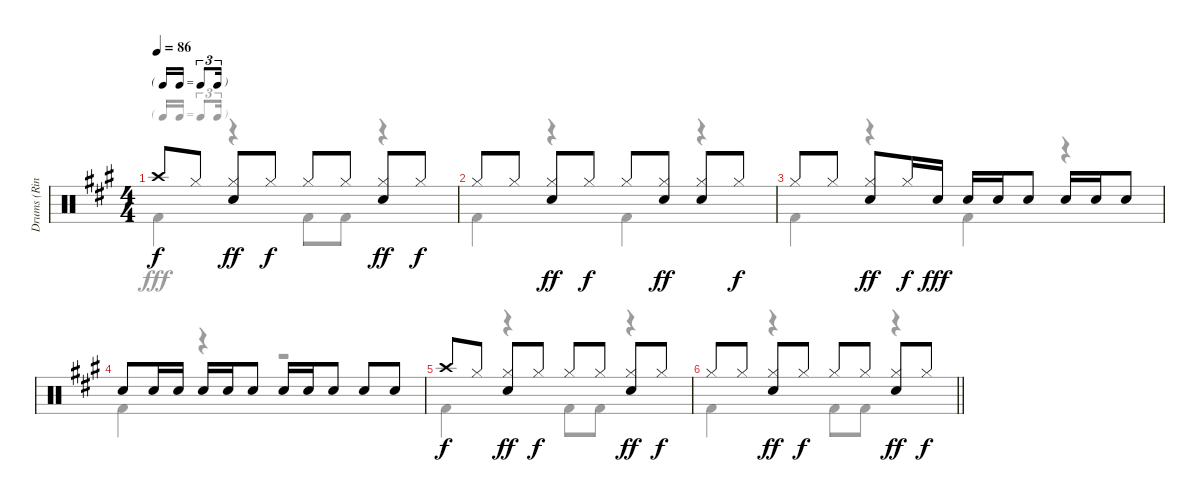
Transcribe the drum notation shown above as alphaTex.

\track ("Drums (Ringo Starr)" "Drums (Rin") {instrument percussion}
\staff {score}
\articulation defaults
\voice
\ts (4 4)
\tf triplet16th
\tempo 86
\clef neutral
\ks a "Crash high (hit)".8{dy f} "Hi-Hat (closed)".8
("Hi-Hat (closed)" "Snare (hit) 2").8{dy ff} "Hi-Hat (closed)".8{dy f} "Hi-Hat (closed)".8 "Hi-Hat (closed)".8 ("Hi-Hat (closed)" "Snare (hit) 2").8{dy ff} "Hi-Hat (closed)".8{dy f} |
"Hi-Hat (closed)".8 "Hi-Hat (closed)".8 ("Hi-Hat (closed)" "Snare (hit) 2").8{dy ff} "Hi-Hat (closed)".8{dy f} "Hi-Hat (closed)".8 ("Hi-Hat (closed)" "Snare (hit) 2").8{dy ff} ("Hi-Hat (closed)" "Snare (hit) 2").8 "Hi-Hat (closed)".8{dy f} |
"Hi-Hat (closed)".8 "Hi-Hat (closed)".8 ("Hi-Hat (closed)" "Snare (hit) 2").8{dy ff} "Hi-Hat (closed)".16{dy f} "Snare (hit) 2".16{dy fff} "Snare (hit) 2".16 "Snare (hit) 2".16 "Snare (hit) 2".8 "Snare (hit) 2".16 "Snare (hit) 2".16 "Snare (hit) 2".8 |
"Snare (hit) 2".8 "Snare (hit) 2".16 "Snare (hit) 2".16 "Snare (hit) 2".16 "Snare (hit) 2".16 "Snare (hit) 2".8 "Snare (hit) 2".16 "Snare (hit) 2".16 "Snare (hit) 2".8 "Snare (hit) 2".8 "Snare (hit) 2".8 |
"Crash high (hit)".8{dy f} "Hi-Hat (closed)".8 ("Hi-Hat (closed)" "Snare (hit) 2").8{dy ff} "Hi-Hat (closed)".8{dy f} "Hi-Hat (closed)".8 "Hi-Hat (closed)".8 ("Hi-Hat (closed)" "Snare (hit) 2").8{dy ff} "Hi-Hat (closed)".8{dy f} |
\barLineRight lightlight "Hi-Hat (closed)".8 "Hi-Hat (closed)".8
("Hi-Hat (closed)" "Snare (hit) 2").8{dy ff} "Hi-Hat (closed)".8{dy f} "Hi-Hat (closed)".8 "Hi-Hat (closed)".8 ("Hi-Hat (closed)" "Snare (hit) 2").8{dy ff} "Hi-Hat (closed)".8{dy f}
\voice
\clef neutral
\ottava regular
\simile none
\ks a "Kick (hit) 2".4{dy fff}
r.4 "Kick (hit) 2".8 "Kick (hit) 2".8 r.4 |
"Kick (hit) 2".4 r.4 "Kick (hit) 2".4 r.4 |
"Kick (hit) 2".4 r.4 "Kick (hit) 2".4 r.4 |
"Kick (hit) 2".4 r.4 r.2 |
"Kick (hit) 2".4 r.4 "Kick (hit) 2".8 "Kick (hit) 2".8 r.4 |
\barLineRight lightlight "Kick (hit) 2".4
r.4 "Kick (hit) 2".8 "Kick (hit) 2".8 r.4
